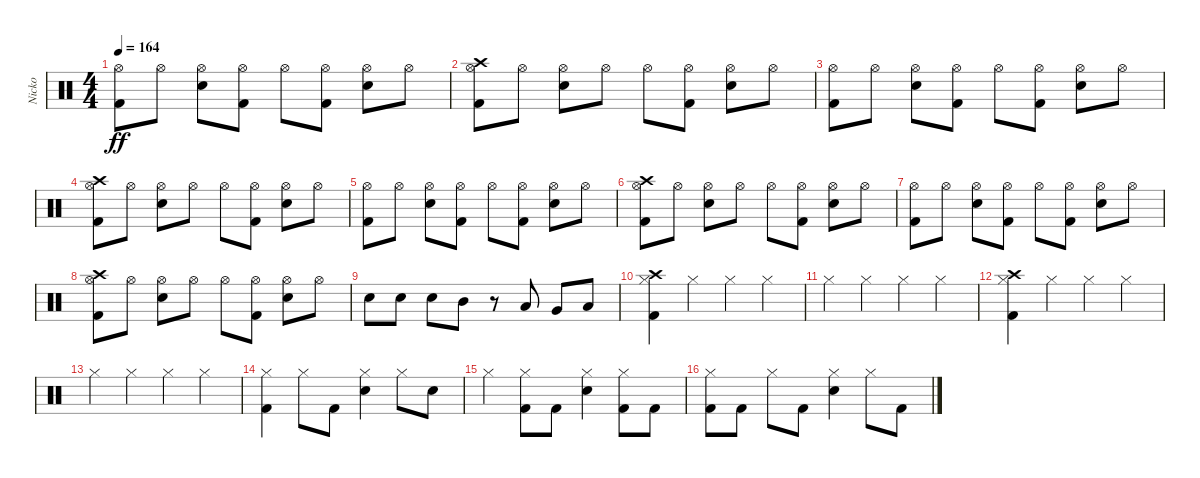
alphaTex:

\track ("Nicko" "Nicko") {instrument percussion}
\staff {score}
\articulation defaults
\ts (4 4)
\tempo 164
\clef neutral
\ks c
("Kick (hit) 2" "Hi-Hat (open)").8{dy ff} "Hi-Hat (open)".8 ("Snare (hit) 2" "Hi-Hat (open)").8 ("Kick (hit) 2" "Hi-Hat (open)").8 "Hi-Hat (open)".8 ("Kick (hit) 2" "Hi-Hat (open)").8 ("Snare (hit) 2" "Hi-Hat (open)").8 "Hi-Hat (open)".8 |
("Kick (hit) 2" "Hi-Hat (open)" "Crash high (hit)").8 "Hi-Hat (open)".8 ("Snare (hit) 2" "Hi-Hat (open)").8 "Hi-Hat (open)".8 "Hi-Hat (open)".8 ("Kick (hit) 2" "Hi-Hat (open)").8 ("Snare (hit) 2" "Hi-Hat (open)").8 "Hi-Hat (open)".8 |
("Kick (hit) 2" "Hi-Hat (open)").8 "Hi-Hat (open)".8 ("Snare (hit) 2" "Hi-Hat (open)").8 ("Kick (hit) 2" "Hi-Hat (open)").8 "Hi-Hat (open)".8 ("Kick (hit) 2" "Hi-Hat (open)").8 ("Snare (hit) 2" "Hi-Hat (open)").8 "Hi-Hat (open)".8 |
("Kick (hit) 2" "Hi-Hat (open)" "Crash high (hit)").8 "Hi-Hat (open)".8 ("Snare (hit) 2" "Hi-Hat (open)").8 "Hi-Hat (open)".8 "Hi-Hat (open)".8 ("Kick (hit) 2" "Hi-Hat (open)").8 ("Snare (hit) 2" "Hi-Hat (open)").8 "Hi-Hat (open)".8 |
("Kick (hit) 2" "Hi-Hat (open)").8 "Hi-Hat (open)".8 ("Snare (hit) 2" "Hi-Hat (open)").8 ("Kick (hit) 2" "Hi-Hat (open)").8 "Hi-Hat (open)".8 ("Kick (hit) 2" "Hi-Hat (open)").8 ("Snare (hit) 2" "Hi-Hat (open)").8 "Hi-Hat (open)".8 |
("Kick (hit) 2" "Hi-Hat (open)" "Crash high (hit)").8 "Hi-Hat (open)".8 ("Snare (hit) 2" "Hi-Hat (open)").8 "Hi-Hat (open)".8 "Hi-Hat (open)".8 ("Kick (hit) 2" "Hi-Hat (open)").8 ("Snare (hit) 2" "Hi-Hat (open)").8 "Hi-Hat (open)".8 |
("Kick (hit) 2" "Hi-Hat (open)").8 "Hi-Hat (open)".8 ("Snare (hit) 2" "Hi-Hat (open)").8 ("Kick (hit) 2" "Hi-Hat (open)").8 "Hi-Hat (open)".8 ("Kick (hit) 2" "Hi-Hat (open)").8 ("Snare (hit) 2" "Hi-Hat (open)").8 "Hi-Hat (open)".8 |
("Kick (hit) 2" "Hi-Hat (open)" "Crash high (hit)").8 "Hi-Hat (open)".8 ("Snare (hit) 2" "Hi-Hat (open)").8 "Hi-Hat (open)".8 "Hi-Hat (open)".8 ("Kick (hit) 2" "Hi-Hat (open)").8 ("Snare (hit) 2" "Hi-Hat (open)").8 "Hi-Hat (open)".8 |
"Snare (hit) 2".8 "Snare (hit) 2".8 "Snare (hit) 2".8 "Mid Tom (hit)".8 r.8 "Low Tom (hit)".8 "Very Low Tom (hit)".8 "Low Floor Tom (hit)".8 |
("Kick (hit) 2" "Hi-Hat (closed)" "Crash high (hit)").4 "Hi-Hat (closed)".4 "Hi-Hat (closed)".4 "Hi-Hat (closed)".4 |
"Hi-Hat (closed)".4 "Hi-Hat (closed)".4 "Hi-Hat (closed)".4 "Hi-Hat (closed)".4 |
("Kick (hit) 2" "Hi-Hat (closed)" "Crash high (hit)").4 "Hi-Hat (closed)".4 "Hi-Hat (closed)".4 "Hi-Hat (closed)".4 |
"Hi-Hat (closed)".4 "Hi-Hat (closed)".4 "Hi-Hat (closed)".4 "Hi-Hat (closed)".4 |
("Kick (hit) 2" "Hi-Hat (closed)").4 "Hi-Hat (closed)".8 "Kick (hit) 2".8 ("Snare (hit) 2" "Hi-Hat (closed)").4 "Hi-Hat (closed)".8 "Snare (hit) 2".8 |
"Hi-Hat (closed)".4 ("Kick (hit) 2" "Hi-Hat (closed)").8 "Kick (hit) 2".8 ("Snare (hit) 2" "Hi-Hat (closed)").4 ("Kick (hit) 2" "Hi-Hat (closed)").8 "Kick (hit) 2".8 |
("Kick (hit) 2" "Hi-Hat (closed)").8 "Kick (hit) 2".8 "Hi-Hat (closed)".8 "Kick (hit) 2".8 ("Snare (hit) 2" "Hi-Hat (closed)").4 "Hi-Hat (closed)".8 "Kick (hit) 2".8
